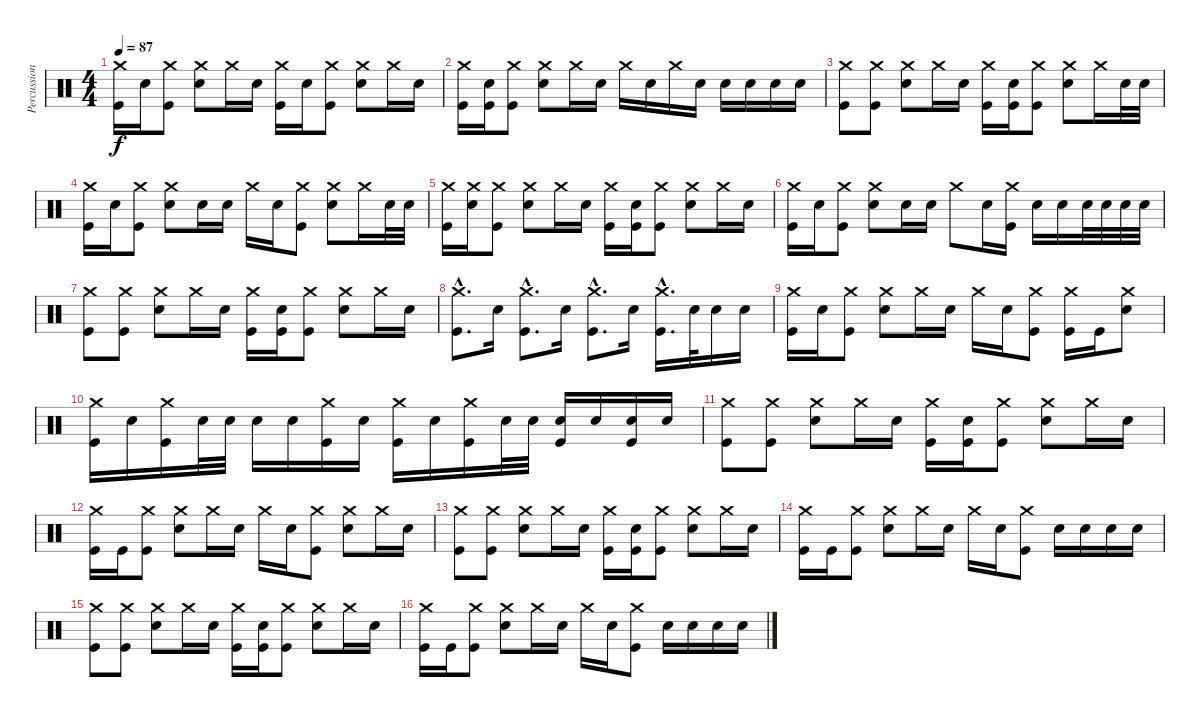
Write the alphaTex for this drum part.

\track ("Percussion" "Percussion") {instrument percussion}
\staff {score}
\articulation defaults
\ts (4 4)
\tempo 87
\clef neutral
\ks c
("Crash medium (hit)" "Kick (hit)").16{dy f} "Snare (hit) 2".16 ("Crash medium (hit)" "Kick (hit)").8 ("Crash medium (hit)" "Snare (hit) 2").8 "Crash medium (hit)".16 "Snare (hit) 2".16 ("Crash medium (hit)" "Kick (hit)").16 "Snare (hit) 2".16 ("Crash medium (hit)" "Kick (hit)").8 ("Crash medium (hit)" "Snare (hit) 2").8 "Crash medium (hit)".16 "Snare (hit) 2".16 |
("Crash medium (hit)" "Kick (hit)").16 ("Snare (hit) 2" "Kick (hit)").16 ("Crash medium (hit)" "Kick (hit)").8 ("Crash medium (hit)" "Snare (hit) 2").8 "Crash medium (hit)".16 "Snare (hit) 2".16 "Crash medium (hit)".16 "Snare (hit) 2".16 "Crash medium (hit)".16 "Snare (hit) 2".16 "Snare (hit) 2".16 "Snare (hit) 2".16 "Snare (hit) 2".16 "Snare (hit) 2".16 |
("Crash medium (hit)" "Kick (hit)").8 ("Crash medium (hit)" "Kick (hit)").8 ("Crash medium (hit)" "Snare (hit) 2").8 "Crash medium (hit)".16 "Snare (hit) 2".16 ("Crash medium (hit)" "Kick (hit)").16 ("Snare (hit) 2" "Kick (hit)").16 ("Crash medium (hit)" "Kick (hit)").8 ("Crash medium (hit)" "Snare (hit) 2").8 "Crash medium (hit)".16 "Snare (hit) 2".32 "Snare (hit) 2".32 |
("Crash medium (hit)" "Kick (hit)").16 "Snare (hit) 2".16 ("Crash medium (hit)" "Kick (hit)").8 ("Crash medium (hit)" "Snare (hit) 2").8 "Snare (hit) 2".16 "Snare (hit) 2".16 "Crash medium (hit)".16 "Snare (hit) 2".16 ("Crash medium (hit)" "Kick (hit)").8 ("Crash medium (hit)" "Snare (hit) 2").8 "Crash medium (hit)".16 "Snare (hit) 2".32 "Snare (hit) 2".32 |
("Crash medium (hit)" "Kick (hit)").16 ("Crash medium (hit)" "Snare (hit) 2").16 ("Crash medium (hit)" "Kick (hit)").8 ("Crash medium (hit)" "Snare (hit) 2").8 "Crash medium (hit)".16 "Snare (hit) 2".16 ("Crash medium (hit)" "Kick (hit)").16 ("Snare (hit) 2" "Kick (hit)").16 ("Crash medium (hit)" "Kick (hit)").8 ("Crash medium (hit)" "Snare (hit) 2").8 "Crash medium (hit)".16 "Snare (hit) 2".16 |
("Crash medium (hit)" "Kick (hit)").16 "Snare (hit) 2".16 ("Crash medium (hit)" "Kick (hit)").8 ("Crash medium (hit)" "Snare (hit) 2").8 "Snare (hit) 2".16 "Snare (hit) 2".16 "Crash medium (hit)".8 "Snare (hit) 2".16 ("Crash medium (hit)" "Kick (hit)").16 "Snare (hit) 2".16 "Snare (hit) 2".16 "Snare (hit) 2".32 "Snare (hit) 2".32 "Snare (hit) 2".32 "Snare (hit) 2".32 |
("Crash medium (hit)" "Kick (hit)").8 ("Crash medium (hit)" "Kick (hit)").8 ("Crash medium (hit)" "Snare (hit) 2").8 "Crash medium (hit)".16 "Snare (hit) 2".16 ("Crash medium (hit)" "Kick (hit)").16 ("Snare (hit) 2" "Kick (hit)").16 ("Crash medium (hit)" "Kick (hit)").8 ("Crash medium (hit)" "Snare (hit) 2").8 "Crash medium (hit)".16 "Snare (hit) 2".16 |
("Crash medium (hit)"{hac} "Kick (hit)"{hac}).8{d} "Snare (hit) 2".16 ("Crash medium (hit)"{hac} "Kick (hit)"{hac}).8{d} "Snare (hit) 2".16 ("Crash medium (hit)"{hac} "Kick (hit)"{hac}).8{d} "Snare (hit) 2".16 ("Crash medium (hit)"{hac} "Kick (hit)"{hac}).16{d} "Snare (hit) 2".32 "Snare (hit) 2".16 "Snare (hit) 2".16 |
("Crash medium (hit)" "Kick (hit)").16 "Snare (hit) 2".16 ("Crash medium (hit)" "Kick (hit)").8 ("Crash medium (hit)" "Snare (hit) 2").8 "Crash medium (hit)".16 "Snare (hit) 2".16 "Crash medium (hit)".16 "Snare (hit) 2".16 ("Crash medium (hit)" "Kick (hit)").8 ("Crash medium (hit)" "Kick (hit)").16 "Kick (hit)".16 ("Crash medium (hit)" "Snare (hit) 2").8 |
("Crash medium (hit)" "Kick (hit)").16 "Snare (hit) 2".16 ("Crash medium (hit)" "Kick (hit)").16 "Snare (hit) 2".32 "Snare (hit) 2".32 "Snare (hit) 2".16 "Snare (hit) 2".16 ("Crash medium (hit)" "Kick (hit)").16 "Snare (hit) 2".16 ("Crash medium (hit)" "Kick (hit)").16 "Snare (hit) 2".16 ("Crash medium (hit)" "Kick (hit)").16 "Snare (hit) 2".32 "Snare (hit) 2".32 ("Snare (hit) 2" "Kick (hit)").16 "Snare (hit) 2".16 ("Snare (hit) 2" "Kick (hit)").16 "Snare (hit) 2".16 |
("Crash medium (hit)" "Kick (hit)").8 ("Crash medium (hit)" "Kick (hit)").8 ("Crash medium (hit)" "Snare (hit) 2").8 "Crash medium (hit)".16 "Snare (hit) 2".16 ("Crash medium (hit)" "Kick (hit)").16 ("Snare (hit) 2" "Kick (hit)").16 ("Crash medium (hit)" "Kick (hit)").8 ("Crash medium (hit)" "Snare (hit) 2").8 "Crash medium (hit)".16 "Snare (hit) 2".16 |
("Crash medium (hit)" "Kick (hit)").16 "Kick (hit)".16 ("Crash medium (hit)" "Kick (hit)").8 ("Crash medium (hit)" "Snare (hit) 2").8 "Crash medium (hit)".16 "Snare (hit) 2".16 "Crash medium (hit)".16 "Snare (hit) 2".16 ("Crash medium (hit)" "Kick (hit)").8 ("Crash medium (hit)" "Snare (hit) 2").8 "Crash medium (hit)".16 "Snare (hit) 2".16 |
("Crash medium (hit)" "Kick (hit)").8 ("Crash medium (hit)" "Kick (hit)").8 ("Crash medium (hit)" "Snare (hit) 2").8 "Crash medium (hit)".16 "Snare (hit) 2".16 ("Crash medium (hit)" "Kick (hit)").16 ("Snare (hit) 2" "Kick (hit)").16 ("Crash medium (hit)" "Kick (hit)").8 ("Crash medium (hit)" "Snare (hit) 2").8 "Crash medium (hit)".16 "Snare (hit) 2".16 |
("Crash medium (hit)" "Kick (hit)").16 "Kick (hit)".16 ("Crash medium (hit)" "Kick (hit)").8 ("Crash medium (hit)" "Snare (hit) 2").8 "Crash medium (hit)".16 "Snare (hit) 2".16 "Crash medium (hit)".16 "Snare (hit) 2".16 ("Crash medium (hit)" "Kick (hit)").8 "Snare (hit) 2".16 "Snare (hit) 2".16 "Snare (hit) 2".16 "Snare (hit) 2".16 |
("Crash medium (hit)" "Kick (hit)").8 ("Crash medium (hit)" "Kick (hit)").8 ("Crash medium (hit)" "Snare (hit) 2").8 "Crash medium (hit)".16 "Snare (hit) 2".16 ("Crash medium (hit)" "Kick (hit)").16 ("Snare (hit) 2" "Kick (hit)").16 ("Crash medium (hit)" "Kick (hit)").8 ("Crash medium (hit)" "Snare (hit) 2").8 "Crash medium (hit)".16 "Snare (hit) 2".16 |
("Crash medium (hit)" "Kick (hit)").16 "Kick (hit)".16 ("Crash medium (hit)" "Kick (hit)").8 ("Crash medium (hit)" "Snare (hit) 2").8 "Crash medium (hit)".16 "Snare (hit) 2".16 "Crash medium (hit)".16 "Snare (hit) 2".16 ("Crash medium (hit)" "Kick (hit)").8 "Snare (hit) 2".16 "Snare (hit) 2".16 "Snare (hit) 2".16 "Snare (hit) 2".16
